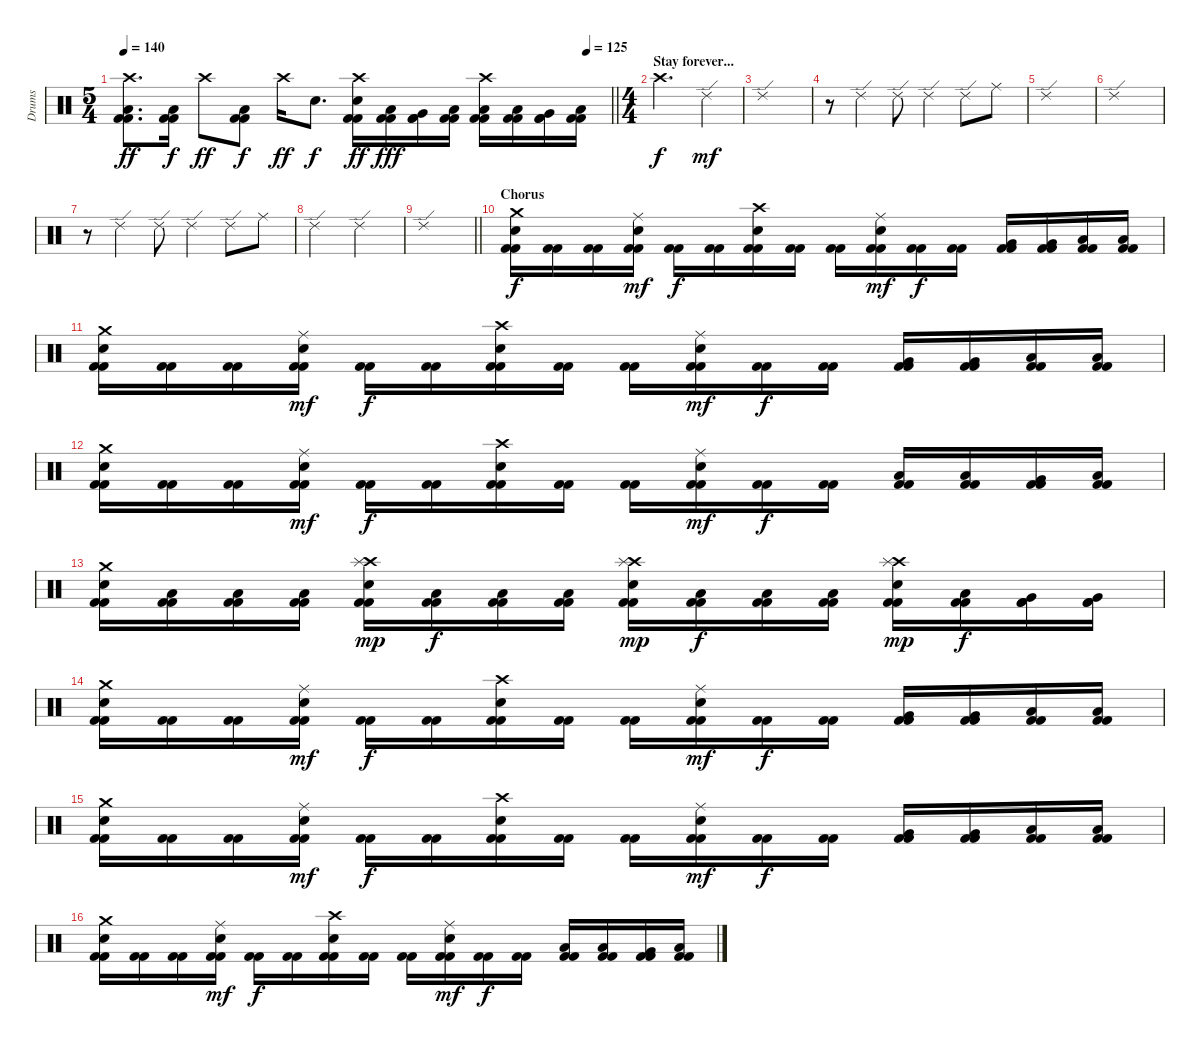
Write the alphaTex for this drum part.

\track ("Drums" "Drums") {instrument percussion}
\staff {score}
\articulation defaults
\ts (5 4)
\tempo 140
\tempo (125 0.95)
\clef neutral
\barLineRight lightlight
\ks c
("Crash high (hit)" "Low Floor Tom (hit)" "Kick (hit) 2" "Kick (hit) 2").8{d dy ff} ("Low Floor Tom (hit)" "Kick (hit) 2" "Kick (hit) 2").16{dy f} "Crash high (hit)".8{dy ff} ("Low Floor Tom (hit)" "Kick (hit) 2" "Kick (hit) 2").8{dy f} "Crash high (hit)".16{dy ff} "Electric Snare (hit)".8{d dy f} ("Crash high (hit)" "Electric Snare (hit)" "Kick (hit) 2" "Kick (hit) 2").16{dy ff} ("Low Tom (hit)" "Kick (hit) 2" "Kick (hit) 2").16{dy fff} ("Very Low Tom (hit)" "Kick (hit) 2" "Kick (hit) 2").16 ("Low Floor Tom (hit)" "Kick (hit) 2" "Kick (hit) 2").16 ("Crash high (hit)" "Low Tom (hit)" "Kick (hit) 2" "Kick (hit) 2").16 ("Low Tom (hit)" "Kick (hit) 2" "Kick (hit) 2").16 ("Very Low Tom (hit)" "Kick (hit) 2" "Kick (hit) 2").16 ("Low Floor Tom (hit)" "Kick (hit) 2" "Kick (hit) 2").16 |
\ts (4 4)
\section ("" "Stay forever...")
"Crash high (hit)".2{d dy f} "Ride (edge) 2".4{dy mf} |
"Ride (edge) 2".1 |
r.8 "Ride (edge) 2".4 "Ride (edge) 2".8 "Ride (edge) 2".4 "Ride (edge) 2".8 "Ride (middle)".8 |
"Ride (edge) 2".1 |
"Ride (edge) 2".1 |
r.8 "Ride (edge) 2".4 "Ride (edge) 2".8 "Ride (edge) 2".4 "Ride (edge) 2".8 "Ride (middle)".8 |
"Ride (edge) 2".2 "Ride (edge) 2".2 |
\barLineRight lightlight "Ride (edge) 2".1
|
\section ("" "Chorus")
("Crash medium (hit)" "Electric Snare (hit)" "Kick (hit) 2" "Kick (hit) 2").16{dy f} ("Kick (hit) 2" "Kick (hit) 2").16 ("Kick (hit) 2" "Kick (hit) 2").16 ("Ride (middle)" "Electric Snare (hit)" "Kick (hit) 2" "Kick (hit) 2").16{dy mf} ("Kick (hit) 2" "Kick (hit) 2").16{dy f} ("Kick (hit) 2" "Kick (hit) 2").16 ("Crash high (hit)" "Electric Snare (hit)" "Kick (hit) 2" "Kick (hit) 2").16 ("Kick (hit) 2" "Kick (hit) 2").16 ("Kick (hit) 2" "Kick (hit) 2").16 ("Ride (middle)" "Electric Snare (hit)" "Kick (hit) 2" "Kick (hit) 2").16{dy mf} ("Kick (hit) 2" "Kick (hit) 2").16{dy f} ("Kick (hit) 2" "Kick (hit) 2").16 ("Very Low Tom (hit)" "Kick (hit) 2" "Kick (hit) 2").16 ("Very Low Tom (hit)" "Kick (hit) 2" "Kick (hit) 2").16 ("Low Floor Tom (hit)" "Kick (hit) 2" "Kick (hit) 2").16 ("Low Floor Tom (hit)" "Kick (hit) 2" "Kick (hit) 2").16 |
("Crash medium (hit)" "Electric Snare (hit)" "Kick (hit) 2" "Kick (hit) 2").16 ("Kick (hit) 2" "Kick (hit) 2").16 ("Kick (hit) 2" "Kick (hit) 2").16 ("Ride (middle)" "Electric Snare (hit)" "Kick (hit) 2" "Kick (hit) 2").16{dy mf} ("Kick (hit) 2" "Kick (hit) 2").16{dy f} ("Kick (hit) 2" "Kick (hit) 2").16 ("Crash high (hit)" "Electric Snare (hit)" "Kick (hit) 2" "Kick (hit) 2").16 ("Kick (hit) 2" "Kick (hit) 2").16 ("Kick (hit) 2" "Kick (hit) 2").16 ("Ride (middle)" "Electric Snare (hit)" "Kick (hit) 2" "Kick (hit) 2").16{dy mf} ("Kick (hit) 2" "Kick (hit) 2").16{dy f} ("Kick (hit) 2" "Kick (hit) 2").16 ("Very Low Tom (hit)" "Kick (hit) 2" "Kick (hit) 2").16 ("Very Low Tom (hit)" "Kick (hit) 2" "Kick (hit) 2").16 ("Low Floor Tom (hit)" "Kick (hit) 2" "Kick (hit) 2").16 ("Low Floor Tom (hit)" "Kick (hit) 2" "Kick (hit) 2").16 |
("Crash medium (hit)" "Electric Snare (hit)" "Kick (hit) 2" "Kick (hit) 2").16 ("Kick (hit) 2" "Kick (hit) 2").16 ("Kick (hit) 2" "Kick (hit) 2").16 ("Ride (middle)" "Electric Snare (hit)" "Kick (hit) 2" "Kick (hit) 2").16{dy mf} ("Kick (hit) 2" "Kick (hit) 2").16{dy f} ("Kick (hit) 2" "Kick (hit) 2").16 ("Crash high (hit)" "Electric Snare (hit)" "Kick (hit) 2" "Kick (hit) 2").16 ("Kick (hit) 2" "Kick (hit) 2").16 ("Kick (hit) 2" "Kick (hit) 2").16 ("Ride (middle)" "Electric Snare (hit)" "Kick (hit) 2" "Kick (hit) 2").16{dy mf} ("Kick (hit) 2" "Kick (hit) 2").16{dy f} ("Kick (hit) 2" "Kick (hit) 2").16 ("Low Tom (hit)" "Kick (hit) 2" "Kick (hit) 2").16 ("Low Tom (hit)" "Kick (hit) 2" "Kick (hit) 2").16 ("Very Low Tom (hit)" "Kick (hit) 2" "Kick (hit) 2").16 ("Low Floor Tom (hit)" "Kick (hit) 2" "Kick (hit) 2").16 |
("Crash medium (hit)" "Electric Snare (hit)" "Kick (hit) 2" "Kick (hit) 2").16 ("Low Floor Tom (hit)" "Kick (hit) 2" "Kick (hit) 2").16 ("Low Floor Tom (hit)" "Kick (hit) 2" "Kick (hit) 2").16 ("Low Floor Tom (hit)" "Kick (hit) 2" "Kick (hit) 2").16 ("Crash high (hit)" "Splash (hit)" "Electric Snare (hit)" "Kick (hit) 2" "Kick (hit) 2").16{dy mp} ("Low Floor Tom (hit)" "Kick (hit) 2" "Kick (hit) 2").16{dy f} ("Low Floor Tom (hit)" "Kick (hit) 2" "Kick (hit) 2").16 ("Low Floor Tom (hit)" "Kick (hit) 2" "Kick (hit) 2").16 ("Crash high (hit)" "Splash (hit)" "Electric Snare (hit)" "Kick (hit) 2" "Kick (hit) 2").16{dy mp} ("Low Floor Tom (hit)" "Kick (hit) 2" "Kick (hit) 2").16{dy f} ("Low Tom (hit)" "Kick (hit) 2" "Kick (hit) 2").16 ("Low Tom (hit)" "Kick (hit) 2" "Kick (hit) 2").16 ("Crash high (hit)" "Splash (hit)" "Electric Snare (hit)" "Kick (hit) 2" "Kick (hit) 2").16{dy mp} ("Low Floor Tom (hit)" "Kick (hit) 2" "Kick (hit) 2").16{dy f} ("Very Low Tom (hit)" "Kick (hit) 2" "Kick (hit) 2").16 ("Very Low Tom (hit)" "Kick (hit) 2" "Kick (hit) 2").16 |
("Crash medium (hit)" "Electric Snare (hit)" "Kick (hit) 2" "Kick (hit) 2").16 ("Kick (hit) 2" "Kick (hit) 2").16 ("Kick (hit) 2" "Kick (hit) 2").16 ("Ride (middle)" "Electric Snare (hit)" "Kick (hit) 2" "Kick (hit) 2").16{dy mf} ("Kick (hit) 2" "Kick (hit) 2").16{dy f} ("Kick (hit) 2" "Kick (hit) 2").16 ("Crash high (hit)" "Electric Snare (hit)" "Kick (hit) 2" "Kick (hit) 2").16 ("Kick (hit) 2" "Kick (hit) 2").16 ("Kick (hit) 2" "Kick (hit) 2").16 ("Ride (middle)" "Electric Snare (hit)" "Kick (hit) 2" "Kick (hit) 2").16{dy mf} ("Kick (hit) 2" "Kick (hit) 2").16{dy f} ("Kick (hit) 2" "Kick (hit) 2").16 ("Very Low Tom (hit)" "Kick (hit) 2" "Kick (hit) 2").16 ("Very Low Tom (hit)" "Kick (hit) 2" "Kick (hit) 2").16 ("Low Floor Tom (hit)" "Kick (hit) 2" "Kick (hit) 2").16 ("Low Floor Tom (hit)" "Kick (hit) 2" "Kick (hit) 2").16 |
("Crash medium (hit)" "Electric Snare (hit)" "Kick (hit) 2" "Kick (hit) 2").16 ("Kick (hit) 2" "Kick (hit) 2").16 ("Kick (hit) 2" "Kick (hit) 2").16 ("Ride (middle)" "Electric Snare (hit)" "Kick (hit) 2" "Kick (hit) 2").16{dy mf} ("Kick (hit) 2" "Kick (hit) 2").16{dy f} ("Kick (hit) 2" "Kick (hit) 2").16 ("Crash high (hit)" "Electric Snare (hit)" "Kick (hit) 2" "Kick (hit) 2").16 ("Kick (hit) 2" "Kick (hit) 2").16 ("Kick (hit) 2" "Kick (hit) 2").16 ("Ride (middle)" "Electric Snare (hit)" "Kick (hit) 2" "Kick (hit) 2").16{dy mf} ("Kick (hit) 2" "Kick (hit) 2").16{dy f} ("Kick (hit) 2" "Kick (hit) 2").16 ("Very Low Tom (hit)" "Kick (hit) 2" "Kick (hit) 2").16 ("Very Low Tom (hit)" "Kick (hit) 2" "Kick (hit) 2").16 ("Low Floor Tom (hit)" "Kick (hit) 2" "Kick (hit) 2").16 ("Low Floor Tom (hit)" "Kick (hit) 2" "Kick (hit) 2").16 |
("Crash medium (hit)" "Electric Snare (hit)" "Kick (hit) 2" "Kick (hit) 2").16 ("Kick (hit) 2" "Kick (hit) 2").16 ("Kick (hit) 2" "Kick (hit) 2").16 ("Ride (middle)" "Electric Snare (hit)" "Kick (hit) 2" "Kick (hit) 2").16{dy mf} ("Kick (hit) 2" "Kick (hit) 2").16{dy f} ("Kick (hit) 2" "Kick (hit) 2").16 ("Crash high (hit)" "Electric Snare (hit)" "Kick (hit) 2" "Kick (hit) 2").16 ("Kick (hit) 2" "Kick (hit) 2").16 ("Kick (hit) 2" "Kick (hit) 2").16 ("Ride (middle)" "Electric Snare (hit)" "Kick (hit) 2" "Kick (hit) 2").16{dy mf} ("Kick (hit) 2" "Kick (hit) 2").16{dy f} ("Kick (hit) 2" "Kick (hit) 2").16 ("Low Tom (hit)" "Kick (hit) 2" "Kick (hit) 2").16 ("Low Tom (hit)" "Kick (hit) 2" "Kick (hit) 2").16 ("Very Low Tom (hit)" "Kick (hit) 2" "Kick (hit) 2").16 ("Low Floor Tom (hit)" "Kick (hit) 2" "Kick (hit) 2").16
